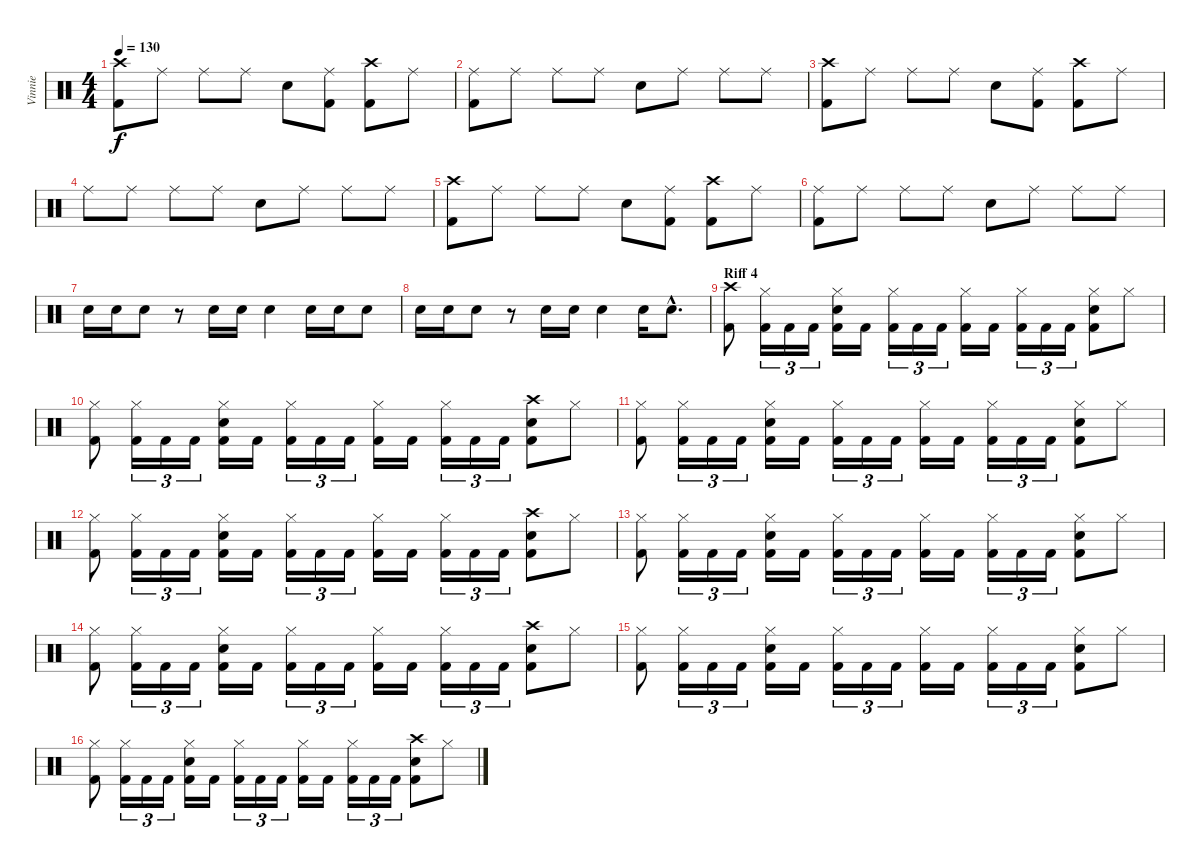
\track ("Vinnie" "Vinnie") {instrument percussion}
\staff {score}
\articulation defaults
\ts (4 4)
\tempo 130
\clef neutral
\ks c
("Crash high (hit)" "Kick (hit) 2").8{dy f} "Ride (middle)".8 "Ride (middle)".8 "Ride (middle)".8 "Electric Snare (hit)".8 ("Ride (middle)" "Kick (hit) 2").8 ("Crash high (hit)" "Kick (hit) 2").8 "Ride (middle)".8 |
("Ride (middle)" "Kick (hit) 2").8 "Ride (middle)".8 "Ride (middle)".8 "Ride (middle)".8 "Electric Snare (hit)".8 "Ride (middle)".8 "Ride (middle)".8 "Ride (middle)".8 |
("Crash high (hit)" "Kick (hit) 2").8 "Ride (middle)".8 "Ride (middle)".8 "Ride (middle)".8 "Electric Snare (hit)".8 ("Ride (middle)" "Kick (hit) 2").8 ("Crash high (hit)" "Kick (hit) 2").8 "Ride (middle)".8 |
"Ride (middle)".8 "Ride (middle)".8 "Ride (middle)".8 "Ride (middle)".8 "Electric Snare (hit)".8 "Ride (middle)".8 "Ride (middle)".8 "Ride (middle)".8 |
("Crash high (hit)" "Kick (hit) 2").8 "Ride (middle)".8 "Ride (middle)".8 "Ride (middle)".8 "Electric Snare (hit)".8 ("Ride (middle)" "Kick (hit) 2").8 ("Crash high (hit)" "Kick (hit) 2").8 "Ride (middle)".8 |
("Ride (middle)" "Kick (hit) 2").8 "Ride (middle)".8 "Ride (middle)".8 "Ride (middle)".8 "Electric Snare (hit)".8 "Ride (middle)".8 "Ride (middle)".8 "Ride (middle)".8 |
"Electric Snare (hit)".16 "Electric Snare (hit)".16 "Electric Snare (hit)".8 r.8 "Electric Snare (hit)".16 "Electric Snare (hit)".16 "Electric Snare (hit)".4 "Electric Snare (hit)".16 "Electric Snare (hit)".16 "Electric Snare (hit)".8 |
"Electric Snare (hit)".16 "Electric Snare (hit)".16 "Electric Snare (hit)".8 r.8 "Electric Snare (hit)".16 "Electric Snare (hit)".16 "Electric Snare (hit)".4 "Electric Snare (hit)".16 "Electric Snare (hit)"{hac}.8{d} |
\section ("" "Riff 4")
("Crash high (hit)" "Kick (hit) 2").8 ("Hi-Hat (closed)" "Kick (hit) 2").16{tu (3 2)} "Kick (hit) 2".16{tu (3 2)} "Kick (hit) 2".16{tu (3 2)} ("Hi-Hat (closed)" "Electric Snare (hit)" "Kick (hit) 2").16 "Kick (hit) 2".16 ("Hi-Hat (closed)" "Kick (hit) 2").16{tu (3 2)} "Kick (hit) 2".16{tu (3 2)} "Kick (hit) 2".16{tu (3 2)} ("Hi-Hat (closed)" "Kick (hit) 2").16 "Kick (hit) 2".16 ("Hi-Hat (closed)" "Kick (hit) 2").16{tu (3 2)} "Kick (hit) 2".16{tu (3 2)} "Kick (hit) 2".16{tu (3 2)} ("Hi-Hat (closed)" "Electric Snare (hit)" "Kick (hit) 2").8 "Hi-Hat (closed)".8 |
("Hi-Hat (closed)" "Kick (hit) 2").8 ("Hi-Hat (closed)" "Kick (hit) 2").16{tu (3 2)} "Kick (hit) 2".16{tu (3 2)} "Kick (hit) 2".16{tu (3 2)} ("Hi-Hat (closed)" "Electric Snare (hit)" "Kick (hit) 2").16 "Kick (hit) 2".16 ("Hi-Hat (closed)" "Kick (hit) 2").16{tu (3 2)} "Kick (hit) 2".16{tu (3 2)} "Kick (hit) 2".16{tu (3 2)} ("Hi-Hat (closed)" "Kick (hit) 2").16 "Kick (hit) 2".16 ("Hi-Hat (closed)" "Kick (hit) 2").16{tu (3 2)} "Kick (hit) 2".16{tu (3 2)} "Kick (hit) 2".16{tu (3 2)} ("Crash high (hit)" "Electric Snare (hit)" "Kick (hit) 2").8 "Hi-Hat (closed)".8 |
("Hi-Hat (closed)" "Kick (hit) 2").8 ("Hi-Hat (closed)" "Kick (hit) 2").16{tu (3 2)} "Kick (hit) 2".16{tu (3 2)} "Kick (hit) 2".16{tu (3 2)} ("Hi-Hat (closed)" "Electric Snare (hit)" "Kick (hit) 2").16 "Kick (hit) 2".16 ("Hi-Hat (closed)" "Kick (hit) 2").16{tu (3 2)} "Kick (hit) 2".16{tu (3 2)} "Kick (hit) 2".16{tu (3 2)} ("Hi-Hat (closed)" "Kick (hit) 2").16 "Kick (hit) 2".16 ("Hi-Hat (closed)" "Kick (hit) 2").16{tu (3 2)} "Kick (hit) 2".16{tu (3 2)} "Kick (hit) 2".16{tu (3 2)} ("Hi-Hat (closed)" "Electric Snare (hit)" "Kick (hit) 2").8 "Hi-Hat (closed)".8 |
("Hi-Hat (closed)" "Kick (hit) 2").8 ("Hi-Hat (closed)" "Kick (hit) 2").16{tu (3 2)} "Kick (hit) 2".16{tu (3 2)} "Kick (hit) 2".16{tu (3 2)} ("Hi-Hat (closed)" "Electric Snare (hit)" "Kick (hit) 2").16 "Kick (hit) 2".16 ("Hi-Hat (closed)" "Kick (hit) 2").16{tu (3 2)} "Kick (hit) 2".16{tu (3 2)} "Kick (hit) 2".16{tu (3 2)} ("Hi-Hat (closed)" "Kick (hit) 2").16 "Kick (hit) 2".16 ("Hi-Hat (closed)" "Kick (hit) 2").16{tu (3 2)} "Kick (hit) 2".16{tu (3 2)} "Kick (hit) 2".16{tu (3 2)} ("Crash high (hit)" "Electric Snare (hit)" "Kick (hit) 2").8 "Hi-Hat (closed)".8 |
("Hi-Hat (closed)" "Kick (hit) 2").8 ("Hi-Hat (closed)" "Kick (hit) 2").16{tu (3 2)} "Kick (hit) 2".16{tu (3 2)} "Kick (hit) 2".16{tu (3 2)} ("Hi-Hat (closed)" "Electric Snare (hit)" "Kick (hit) 2").16 "Kick (hit) 2".16 ("Hi-Hat (closed)" "Kick (hit) 2").16{tu (3 2)} "Kick (hit) 2".16{tu (3 2)} "Kick (hit) 2".16{tu (3 2)} ("Hi-Hat (closed)" "Kick (hit) 2").16 "Kick (hit) 2".16 ("Hi-Hat (closed)" "Kick (hit) 2").16{tu (3 2)} "Kick (hit) 2".16{tu (3 2)} "Kick (hit) 2".16{tu (3 2)} ("Hi-Hat (closed)" "Electric Snare (hit)" "Kick (hit) 2").8 "Hi-Hat (closed)".8 |
("Hi-Hat (closed)" "Kick (hit) 2").8 ("Hi-Hat (closed)" "Kick (hit) 2").16{tu (3 2)} "Kick (hit) 2".16{tu (3 2)} "Kick (hit) 2".16{tu (3 2)} ("Hi-Hat (closed)" "Electric Snare (hit)" "Kick (hit) 2").16 "Kick (hit) 2".16 ("Hi-Hat (closed)" "Kick (hit) 2").16{tu (3 2)} "Kick (hit) 2".16{tu (3 2)} "Kick (hit) 2".16{tu (3 2)} ("Hi-Hat (closed)" "Kick (hit) 2").16 "Kick (hit) 2".16 ("Hi-Hat (closed)" "Kick (hit) 2").16{tu (3 2)} "Kick (hit) 2".16{tu (3 2)} "Kick (hit) 2".16{tu (3 2)} ("Crash high (hit)" "Electric Snare (hit)" "Kick (hit) 2").8 "Hi-Hat (closed)".8 |
("Hi-Hat (closed)" "Kick (hit) 2").8 ("Hi-Hat (closed)" "Kick (hit) 2").16{tu (3 2)} "Kick (hit) 2".16{tu (3 2)} "Kick (hit) 2".16{tu (3 2)} ("Hi-Hat (closed)" "Electric Snare (hit)" "Kick (hit) 2").16 "Kick (hit) 2".16 ("Hi-Hat (closed)" "Kick (hit) 2").16{tu (3 2)} "Kick (hit) 2".16{tu (3 2)} "Kick (hit) 2".16{tu (3 2)} ("Hi-Hat (closed)" "Kick (hit) 2").16 "Kick (hit) 2".16 ("Hi-Hat (closed)" "Kick (hit) 2").16{tu (3 2)} "Kick (hit) 2".16{tu (3 2)} "Kick (hit) 2".16{tu (3 2)} ("Hi-Hat (closed)" "Electric Snare (hit)" "Kick (hit) 2").8 "Hi-Hat (closed)".8 |
("Hi-Hat (closed)" "Kick (hit) 2").8 ("Hi-Hat (closed)" "Kick (hit) 2").16{tu (3 2)} "Kick (hit) 2".16{tu (3 2)} "Kick (hit) 2".16{tu (3 2)} ("Hi-Hat (closed)" "Electric Snare (hit)" "Kick (hit) 2").16 "Kick (hit) 2".16 ("Hi-Hat (closed)" "Kick (hit) 2").16{tu (3 2)} "Kick (hit) 2".16{tu (3 2)} "Kick (hit) 2".16{tu (3 2)} ("Hi-Hat (closed)" "Kick (hit) 2").16 "Kick (hit) 2".16 ("Hi-Hat (closed)" "Kick (hit) 2").16{tu (3 2)} "Kick (hit) 2".16{tu (3 2)} "Kick (hit) 2".16{tu (3 2)} ("Crash high (hit)" "Electric Snare (hit)" "Kick (hit) 2").8 "Hi-Hat (closed)".8
